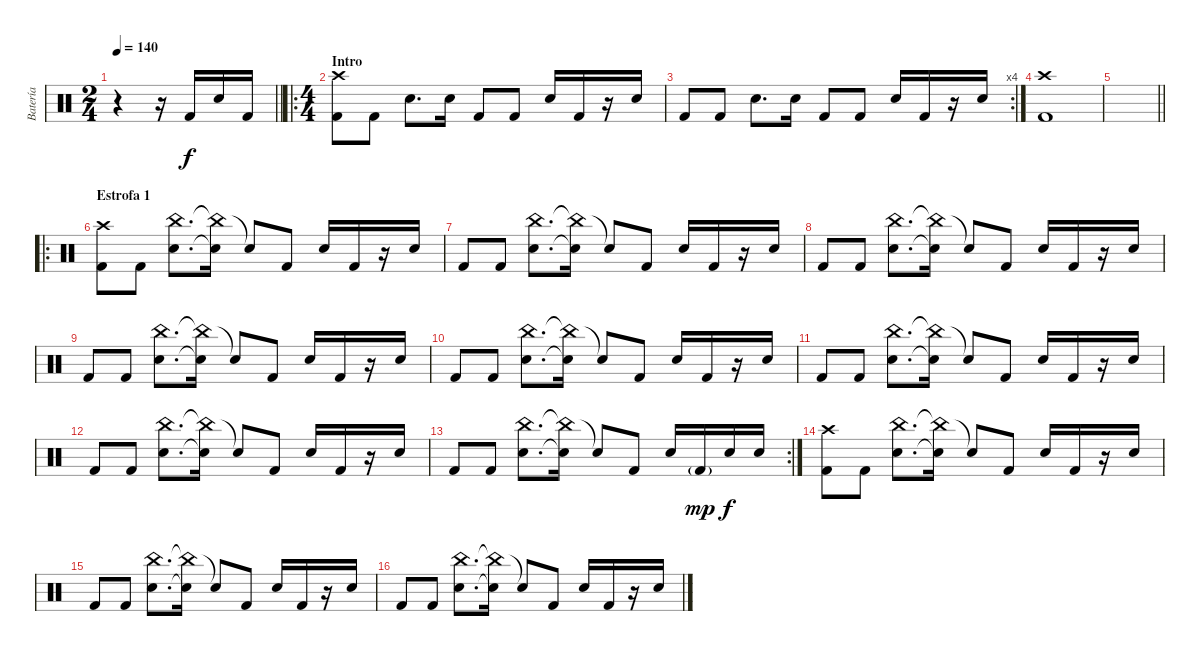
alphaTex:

\track ("Batería" "Batería") {instrument percussion}
\staff {score}
\articulation defaults
\ts (2 4)
\tempo 140
\clef neutral
\barLineRight lightlight
\ks c
r.4{dy f} r.16 "Kick (hit) 2".16 "Electric Snare (hit)".16 "Kick (hit) 2".16 |
\ro
\ts (4 4)
\section ("" "Intro")
("Kick (hit) 2" "Crash high (hit)").8 "Kick (hit) 2".8 "Electric Snare (hit)".8{d} "Electric Snare (hit)".16 "Kick (hit) 2".8 "Kick (hit) 2".8 "Electric Snare (hit)".16 "Kick (hit) 2".16 r.16 "Electric Snare (hit)".16 |
\rc 4 "Kick (hit) 2".8 "Kick (hit) 2".8 "Electric Snare (hit)".8{d} "Electric Snare (hit)".16 "Kick (hit) 2".8 "Kick (hit) 2".8 "Electric Snare (hit)".16 "Kick (hit) 2".16
r.16 "Electric Snare (hit)".16 |
("Crash high (hit)" "Kick (hit) 2").1 |
\barLineRight lightlight
|
\ro
\section ("" "Estrofa 1")
("Crash high (hit)" "Kick (hit) 2").8 "Kick (hit) 2".8 ("China (hit)" "Electric Snare (hit)").8{d} ("China (hit)"{t} "Electric Snare (hit)"{t}).16 "Snare (hit)"{t}.8 "Kick (hit) 2".8 "Electric Snare (hit)".16 "Kick (hit) 2".16 r.16 "Electric Snare (hit)".16 |
"Kick (hit) 2".8 "Kick (hit) 2".8 ("China (hit)" "Electric Snare (hit)").8{d} ("China (hit)"{t} "Electric Snare (hit)"{t}).16 "Snare (hit)"{t}.8 "Kick (hit) 2".8 "Electric Snare (hit)".16 "Kick (hit) 2".16 r.16 "Electric Snare (hit)".16 |
"Kick (hit) 2".8 "Kick (hit) 2".8 ("China (hit)" "Electric Snare (hit)").8{d} ("China (hit)"{t} "Electric Snare (hit)"{t}).16 "Snare (hit)"{t}.8 "Kick (hit) 2".8 "Electric Snare (hit)".16 "Kick (hit) 2".16 r.16 "Electric Snare (hit)".16 |
"Kick (hit) 2".8 "Kick (hit) 2".8 ("China (hit)" "Electric Snare (hit)").8{d} ("China (hit)"{t} "Electric Snare (hit)"{t}).16 "Snare (hit)"{t}.8 "Kick (hit) 2".8 "Electric Snare (hit)".16 "Kick (hit) 2".16 r.16 "Electric Snare (hit)".16 |
"Kick (hit) 2".8 "Kick (hit) 2".8 ("China (hit)" "Electric Snare (hit)").8{d} ("China (hit)"{t} "Electric Snare (hit)"{t}).16 "Snare (hit)"{t}.8 "Kick (hit) 2".8 "Electric Snare (hit)".16 "Kick (hit) 2".16 r.16 "Electric Snare (hit)".16 |
"Kick (hit) 2".8 "Kick (hit) 2".8 ("China (hit)" "Electric Snare (hit)").8{d} ("China (hit)"{t} "Electric Snare (hit)"{t}).16 "Snare (hit)"{t}.8 "Kick (hit) 2".8 "Electric Snare (hit)".16 "Kick (hit) 2".16 r.16 "Electric Snare (hit)".16 |
"Kick (hit) 2".8 "Kick (hit) 2".8 ("China (hit)" "Electric Snare (hit)").8{d} ("China (hit)"{t} "Electric Snare (hit)"{t}).16 "Snare (hit)"{t}.8 "Kick (hit) 2".8 "Electric Snare (hit)".16 "Kick (hit) 2".16 r.16 "Electric Snare (hit)".16 |
\rc 2 "Kick (hit) 2".8 "Kick (hit) 2".8
("China (hit)" "Electric Snare (hit)").8{d} ("China (hit)"{t} "Electric Snare (hit)"{t}).16 "Snare (hit)"{t}.8 "Kick (hit) 2".8 "Electric Snare (hit)".16 "Kick (hit) 2"{g}.16{dy mp} "Electric Snare (hit)".16{dy f} "Electric Snare (hit)".16 |
("Crash high (hit)" "Kick (hit) 2").8 "Kick (hit) 2".8 ("China (hit)" "Electric Snare (hit)").8{d} ("China (hit)"{t} "Electric Snare (hit)"{t}).16 "Snare (hit)"{t}.8 "Kick (hit) 2".8 "Electric Snare (hit)".16 "Kick (hit) 2".16 r.16 "Electric Snare (hit)".16 |
"Kick (hit) 2".8 "Kick (hit) 2".8 ("China (hit)" "Electric Snare (hit)").8{d} ("China (hit)"{t} "Electric Snare (hit)"{t}).16 "Snare (hit)"{t}.8 "Kick (hit) 2".8 "Electric Snare (hit)".16 "Kick (hit) 2".16 r.16 "Electric Snare (hit)".16 |
"Kick (hit) 2".8 "Kick (hit) 2".8 ("China (hit)" "Electric Snare (hit)").8{d} ("China (hit)"{t} "Electric Snare (hit)"{t}).16 "Snare (hit)"{t}.8 "Kick (hit) 2".8 "Electric Snare (hit)".16 "Kick (hit) 2".16 r.16 "Electric Snare (hit)".16
